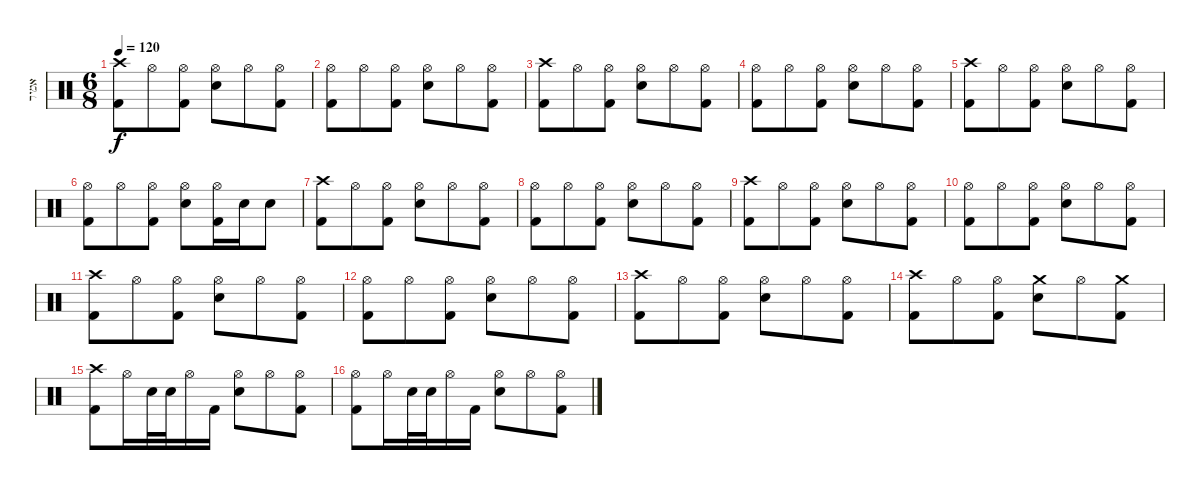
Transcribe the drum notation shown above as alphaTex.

\track ("אמיר" "אמיר") {instrument percussion}
\staff {score}
\articulation defaults
\ts (6 8)
\tempo 120
\clef neutral
\ks c
("Crash high (hit)" "Kick (hit) 2").8{dy f} "Hi-Hat (open)".8 ("Hi-Hat (open)" "Kick (hit) 2").8 ("Hi-Hat (open)" "Snare (hit) 2").8 "Hi-Hat (open)".8 ("Hi-Hat (open)" "Kick (hit) 2").8 |
("Hi-Hat (open)" "Kick (hit) 2").8 "Hi-Hat (open)".8 ("Hi-Hat (open)" "Kick (hit) 2").8 ("Hi-Hat (open)" "Snare (hit) 2").8 "Hi-Hat (open)".8 ("Hi-Hat (open)" "Kick (hit) 2").8 |
("Crash high (hit)" "Kick (hit) 2").8 "Hi-Hat (open)".8 ("Hi-Hat (open)" "Kick (hit) 2").8 ("Hi-Hat (open)" "Snare (hit) 2").8 "Hi-Hat (open)".8 ("Hi-Hat (open)" "Kick (hit) 2").8 |
("Hi-Hat (open)" "Kick (hit) 2").8 "Hi-Hat (open)".8 ("Hi-Hat (open)" "Kick (hit) 2").8 ("Hi-Hat (open)" "Snare (hit) 2").8 "Hi-Hat (open)".8 ("Hi-Hat (open)" "Kick (hit) 2").8 |
("Crash high (hit)" "Kick (hit) 2").8 "Hi-Hat (open)".8 ("Hi-Hat (open)" "Kick (hit) 2").8 ("Hi-Hat (open)" "Snare (hit) 2").8 "Hi-Hat (open)".8 ("Hi-Hat (open)" "Kick (hit) 2").8 |
("Hi-Hat (open)" "Kick (hit) 2").8 "Hi-Hat (open)".8 ("Hi-Hat (open)" "Kick (hit) 2").8 ("Hi-Hat (open)" "Snare (hit) 2").8 ("Hi-Hat (open)" "Kick (hit) 2").16 "Snare (hit) 2".16 "Snare (hit) 2".8 |
("Crash high (hit)" "Kick (hit) 2").8 "Hi-Hat (open)".8 ("Hi-Hat (open)" "Kick (hit) 2").8 ("Hi-Hat (open)" "Snare (hit) 2").8 "Hi-Hat (open)".8 ("Hi-Hat (open)" "Kick (hit) 2").8 |
("Hi-Hat (open)" "Kick (hit) 2").8 "Hi-Hat (open)".8 ("Hi-Hat (open)" "Kick (hit) 2").8 ("Hi-Hat (open)" "Snare (hit) 2").8 "Hi-Hat (open)".8 ("Hi-Hat (open)" "Kick (hit) 2").8 |
("Crash high (hit)" "Kick (hit) 2").8 "Hi-Hat (open)".8 ("Hi-Hat (open)" "Kick (hit) 2").8 ("Hi-Hat (open)" "Snare (hit) 2").8 "Hi-Hat (open)".8 ("Hi-Hat (open)" "Kick (hit) 2").8 |
("Hi-Hat (open)" "Kick (hit) 2").8 "Hi-Hat (open)".8 ("Hi-Hat (open)" "Kick (hit) 2").8 ("Hi-Hat (open)" "Snare (hit) 2").8 "Hi-Hat (open)".8 ("Hi-Hat (open)" "Kick (hit) 2").8 |
("Crash high (hit)" "Kick (hit) 2").8 "Hi-Hat (open)".8 ("Hi-Hat (open)" "Kick (hit) 2").8 ("Hi-Hat (open)" "Snare (hit) 2").8 "Hi-Hat (open)".8 ("Hi-Hat (open)" "Kick (hit) 2").8 |
("Hi-Hat (open)" "Kick (hit) 2").8 "Hi-Hat (open)".8 ("Hi-Hat (open)" "Kick (hit) 2").8 ("Hi-Hat (open)" "Snare (hit) 2").8 "Hi-Hat (open)".8 ("Hi-Hat (open)" "Kick (hit) 2").8 |
("Crash high (hit)" "Kick (hit) 2").8 "Hi-Hat (open)".8 ("Hi-Hat (open)" "Kick (hit) 2").8 ("Hi-Hat (open)" "Snare (hit) 2").8 "Hi-Hat (open)".8 ("Hi-Hat (open)" "Kick (hit) 2").8 |
("Crash high (hit)" "Kick (hit) 2").8 "Hi-Hat (open)".8 ("Hi-Hat (open)" "Kick (hit) 2").8 ("Crash medium (hit)" "Snare (hit) 2").8 "Hi-Hat (open)".8 ("Crash medium (hit)" "Kick (hit) 2").8 |
("Crash high (hit)" "Kick (hit) 2").8 "Hi-Hat (open)".16 "Snare (hit) 2".32 "Snare (hit) 2".32 "Hi-Hat (open)".16 "Kick (hit) 2".16 ("Hi-Hat (open)" "Snare (hit) 2").8 "Hi-Hat (open)".8 ("Hi-Hat (open)" "Kick (hit) 2").8 |
("Hi-Hat (open)" "Kick (hit) 2").8 "Hi-Hat (open)".16 "Snare (hit) 2".32 "Snare (hit) 2".32 "Hi-Hat (open)".16 "Kick (hit) 2".16 ("Hi-Hat (open)" "Snare (hit) 2").8 "Hi-Hat (open)".8 ("Hi-Hat (open)" "Kick (hit) 2").8
